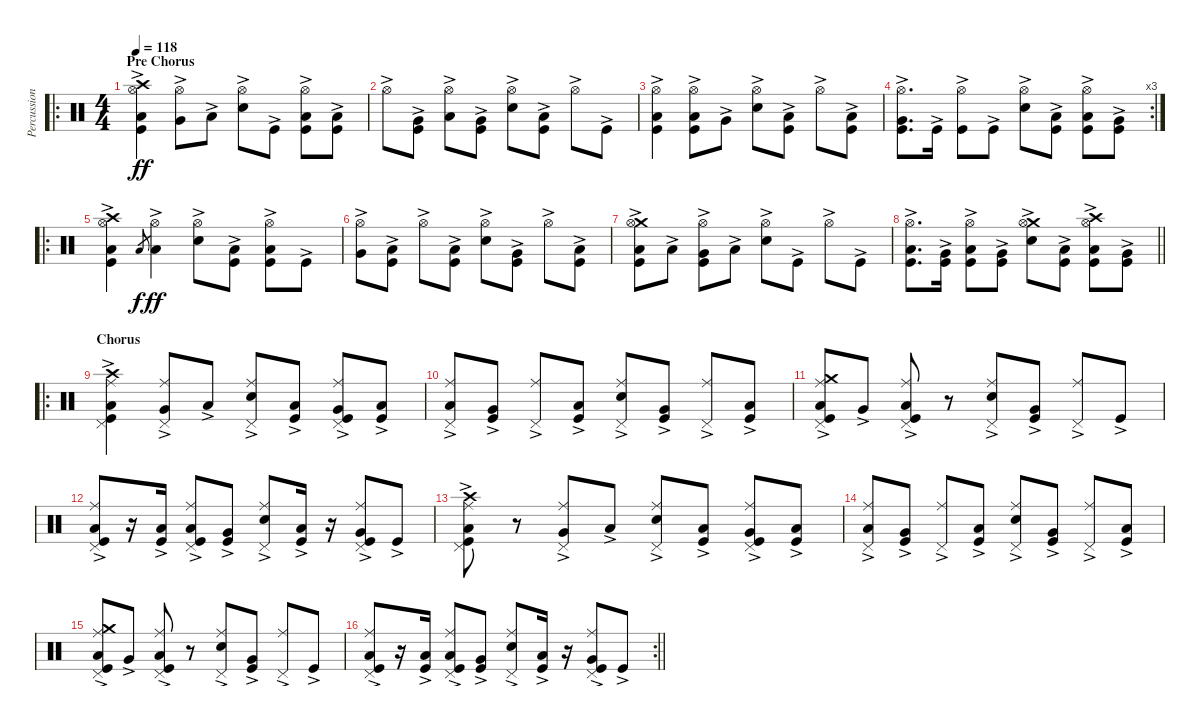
\track ("Percussion" "Percussion") {instrument percussion}
\staff {score}
\articulation defaults
\ro
\ts (4 4)
\section ("" "Pre Chorus")
\tempo 118
\clef neutral
\ks c
("Crash high (hit)"{ac} "Hi-Hat (open)"{ac} "Low Floor Tom (hit)"{ac} "Kick (hit)"{ac}).4{dy ff} ("Hi-Hat (open)"{ac} "Very Low Tom (hit)"{ac}).8 "Low Floor Tom (hit)"{ac}.8 ("Hi-Hat (open)"{ac} "Electric Snare (hit)"{ac}).8 "Kick (hit)"{ac}.8 ("Hi-Hat (open)"{ac} "Low Floor Tom (hit)"{ac} "Kick (hit)"{ac}).8 ("Low Floor Tom (hit)"{ac} "Kick (hit)"{ac}).8 |
"Hi-Hat (open)"{ac}.8 ("Very Low Tom (hit)"{ac} "Kick (hit)"{ac}).8 ("Hi-Hat (open)"{ac} "Low Floor Tom (hit)"{ac}).8 ("Very Low Tom (hit)"{ac} "Kick (hit)"{ac}).8 ("Hi-Hat (open)"{ac} "Electric Snare (hit)"{ac}).8 ("Low Floor Tom (hit)"{ac} "Kick (hit)"{ac}).8 "Hi-Hat (open)"{ac}.8 "Kick (hit)"{ac}.8 |
("Hi-Hat (open)"{ac} "Low Floor Tom (hit)"{ac} "Kick (hit)"{ac}).4 ("Hi-Hat (open)"{ac} "Low Floor Tom (hit)"{ac} "Kick (hit)"{ac}).8 "Very Low Tom (hit)"{ac}.8 ("Hi-Hat (open)"{ac} "Electric Snare (hit)"{ac}).8 ("Low Floor Tom (hit)"{ac} "Kick (hit)"{ac}).8 "Hi-Hat (open)"{ac}.8 ("Low Floor Tom (hit)"{ac} "Kick (hit)"{ac}).8 |
\rc 3
("Hi-Hat (open)"{ac} "Very Low Tom (hit)" "Kick (hit)"{ac}).8{d} "Kick (hit)"{ac}.16 ("Hi-Hat (open)"{ac} "Kick (hit)"{ac}).8 "Kick (hit)"{ac}.8 ("Hi-Hat (open)"{ac} "Electric Snare (hit)"{ac}).8 ("Low Floor Tom (hit)"{ac} "Kick (hit)"{ac}).8 ("Hi-Hat (open)"{ac} "Low Floor Tom (hit)"{ac} "Kick (hit)"{ac}).8 ("Very Low Tom (hit)"{ac} "Kick (hit)"{ac}).8 |
\ro
("Crash high (hit)"{ac} "Hi-Hat (open)"{ac} "Low Floor Tom (hit)"{ac} "Kick (hit)"{ac}).4 "Low Floor Tom (hit)".8{gr dy f} ("Hi-Hat (open)"{ac} "Low Floor Tom (hit)"{ac}).4{dy ff} ("Hi-Hat (open)"{ac} "Electric Snare (hit)"{ac}).8 ("Low Floor Tom (hit)"{ac} "Kick (hit)"{ac}).8 ("Hi-Hat (open)"{ac} "Low Floor Tom (hit)"{ac} "Kick (hit)"{ac}).8 "Kick (hit)"{ac}.8 |
("Hi-Hat (open)"{ac} "Very Low Tom (hit)"{ac}).8 ("Low Floor Tom (hit)"{ac} "Kick (hit)"{ac}).8 "Hi-Hat (open)"{ac}.8 ("Low Floor Tom (hit)"{ac} "Kick (hit)"{ac}).8 ("Hi-Hat (open)"{ac} "Electric Snare (hit)"{ac}).8 ("Very Low Tom (hit)"{ac} "Kick (hit)"{ac}).8 "Hi-Hat (open)"{ac}.8 ("Low Floor Tom (hit)"{ac} "Kick (hit)"{ac}).8 |
("Crash medium (hit)"{ac} "Hi-Hat (open)"{ac} "Low Floor Tom (hit)"{ac} "Kick (hit)"{ac}).8 "Low Floor Tom (hit)"{ac}.8 ("Hi-Hat (open)"{ac} "Very Low Tom (hit)"{ac} "Kick (hit)"{ac}).8 "Low Floor Tom (hit)"{ac}.8 ("Hi-Hat (open)"{ac} "Electric Snare (hit)"{ac}).8 "Kick (hit)"{ac}.8 "Hi-Hat (open)"{ac}.8 "Kick (hit)"{ac}.8 |
\barLineRight lightlight
("Hi-Hat (open)"{ac} "Low Floor Tom (hit)"{ac} "Kick (hit)"{ac}).8{d} ("Very Low Tom (hit)"{ac} "Kick (hit)"{ac}).16 ("Hi-Hat (open)"{ac} "Low Floor Tom (hit)"{ac} "Kick (hit)"{ac}).8 ("Very Low Tom (hit)"{ac} "Kick (hit)"{ac}).8 ("Crash medium (hit)"{ac} "Hi-Hat (open)"{ac} "Electric Snare (hit)"{ac}).8 ("Low Floor Tom (hit)"{ac} "Kick (hit)"{ac}).8 ("Crash high (hit)"{ac} "Hi-Hat (open)"{ac} "Low Floor Tom (hit)"{ac} "Kick (hit)"{ac}).8 ("Very Low Tom (hit)"{ac} "Kick (hit)"{ac}).8 |
\ro
\section ("" "Chorus")
("Low Floor Tom (hit)"{ac} "Crash high (hit)"{ac} "Ride (middle)"{ac} "Pedal Hi-Hat (hit)"{ac} "Kick (hit)"{ac}).4 ("Ride (middle)"{ac} "Pedal Hi-Hat (hit)"{ac} "Very Low Tom (hit)"{ac}).8 "Low Floor Tom (hit)"{ac}.8 ("Pedal Hi-Hat (hit)"{ac} "Ride (middle)"{ac} "Electric Snare (hit)"{ac}).8 ("Low Floor Tom (hit)"{ac} "Kick (hit)"{ac}).8 ("Very Low Tom (hit)"{ac} "Ride (middle)"{ac} "Pedal Hi-Hat (hit)"{ac} "Kick (hit)"{ac}).8 ("Low Floor Tom (hit)"{ac} "Kick (hit)"{ac}).8 |
("Ride (middle)"{ac} "Pedal Hi-Hat (hit)"{ac} "Low Floor Tom (hit)"{ac}).8 ("Very Low Tom (hit)"{ac} "Kick (hit)"{ac}).8 ("Ride (middle)"{ac} "Pedal Hi-Hat (hit)"{ac}).8 ("Low Floor Tom (hit)"{ac} "Kick (hit)"{ac}).8 ("Pedal Hi-Hat (hit)"{ac} "Ride (middle)"{ac} "Electric Snare (hit)"{ac}).8 ("Very Low Tom (hit)"{ac} "Kick (hit)"{ac}).8 ("Ride (middle)"{ac} "Pedal Hi-Hat (hit)"{ac}).8 ("Low Floor Tom (hit)"{ac} "Kick (hit)"{ac}).8 |
("Low Floor Tom (hit)"{ac} "Crash medium (hit)"{ac} "Ride (middle)"{ac} "Pedal Hi-Hat (hit)"{ac} "Kick (hit)"{ac}).8 "Very Low Tom (hit)"{ac}.8 ("Low Floor Tom (hit)"{ac} "Ride (middle)"{ac} "Pedal Hi-Hat (hit)"{ac} "Kick (hit)"{ac}).8 r.8 ("Pedal Hi-Hat (hit)"{ac} "Ride (middle)"{ac} "Electric Snare (hit)"{ac}).8 ("Very Low Tom (hit)"{ac} "Kick (hit)"{ac}).8 ("Ride (middle)"{ac} "Pedal Hi-Hat (hit)"{ac}).8 "Kick (hit)"{ac}.8 |
("Low Floor Tom (hit)"{ac} "Ride (middle)"{ac} "Pedal Hi-Hat (hit)"{ac} "Kick (hit)"{ac}).8 r.16 ("Low Floor Tom (hit)"{ac} "Kick (hit)"{ac}).16 ("Low Floor Tom (hit)"{ac} "Ride (middle)"{ac} "Pedal Hi-Hat (hit)"{ac} "Kick (hit)"{ac}).8 ("Very Low Tom (hit)"{ac} "Kick (hit)"{ac}).8 ("Pedal Hi-Hat (hit)"{ac} "Ride (middle)"{ac} "Electric Snare (hit)"{ac}).8 ("Low Floor Tom (hit)"{ac} "Kick (hit)"{ac}).16 r.16 ("Very Low Tom (hit)"{ac} "Ride (middle)"{ac} "Pedal Hi-Hat (hit)"{ac} "Kick (hit)"{ac}).8 "Kick (hit)"{ac}.8 |
("Low Floor Tom (hit)"{ac} "Crash high (hit)"{ac} "Ride (middle)"{ac} "Pedal Hi-Hat (hit)"{ac} "Kick (hit)"{ac}).8 r.8 ("Ride (middle)"{ac} "Pedal Hi-Hat (hit)"{ac} "Very Low Tom (hit)"{ac}).8 "Low Floor Tom (hit)"{ac}.8 ("Pedal Hi-Hat (hit)"{ac} "Ride (middle)"{ac} "Electric Snare (hit)"{ac}).8 ("Low Floor Tom (hit)"{ac} "Kick (hit)"{ac}).8 ("Very Low Tom (hit)"{ac} "Ride (middle)"{ac} "Pedal Hi-Hat (hit)"{ac} "Kick (hit)"{ac}).8 ("Low Floor Tom (hit)"{ac} "Kick (hit)"{ac}).8 |
("Ride (middle)"{ac} "Pedal Hi-Hat (hit)"{ac} "Low Floor Tom (hit)"{ac}).8 ("Very Low Tom (hit)"{ac} "Kick (hit)"{ac}).8 ("Ride (middle)"{ac} "Pedal Hi-Hat (hit)"{ac}).8 ("Low Floor Tom (hit)"{ac} "Kick (hit)"{ac}).8 ("Pedal Hi-Hat (hit)"{ac} "Ride (middle)"{ac} "Electric Snare (hit)"{ac}).8 ("Very Low Tom (hit)"{ac} "Kick (hit)"{ac}).8 ("Ride (middle)"{ac} "Pedal Hi-Hat (hit)"{ac}).8 ("Low Floor Tom (hit)"{ac} "Kick (hit)"{ac}).8 |
("Low Floor Tom (hit)"{ac} "Crash medium (hit)"{ac} "Ride (middle)"{ac} "Pedal Hi-Hat (hit)"{ac} "Kick (hit)"{ac}).8 "Very Low Tom (hit)"{ac}.8 ("Low Floor Tom (hit)"{ac} "Ride (middle)"{ac} "Pedal Hi-Hat (hit)"{ac} "Kick (hit)"{ac}).8 r.8 ("Pedal Hi-Hat (hit)"{ac} "Ride (middle)"{ac} "Electric Snare (hit)"{ac}).8 ("Very Low Tom (hit)"{ac} "Kick (hit)"{ac}).8 ("Ride (middle)"{ac} "Pedal Hi-Hat (hit)"{ac}).8 "Kick (hit)"{ac}.8 |
\rc 2
\barLineRight lightlight
("Low Floor Tom (hit)"{ac} "Ride (middle)"{ac} "Pedal Hi-Hat (hit)"{ac} "Kick (hit)"{ac}).8 r.16 ("Low Floor Tom (hit)"{ac} "Kick (hit)"{ac}).16 ("Low Floor Tom (hit)"{ac} "Ride (middle)"{ac} "Pedal Hi-Hat (hit)"{ac} "Kick (hit)"{ac}).8 ("Very Low Tom (hit)"{ac} "Kick (hit)"{ac}).8 ("Pedal Hi-Hat (hit)"{ac} "Ride (middle)"{ac} "Electric Snare (hit)"{ac}).8 ("Low Floor Tom (hit)"{ac} "Kick (hit)"{ac}).16 r.16 ("Very Low Tom (hit)"{ac} "Ride (middle)"{ac} "Pedal Hi-Hat (hit)"{ac} "Kick (hit)"{ac}).8 "Kick (hit)"{ac}.8
